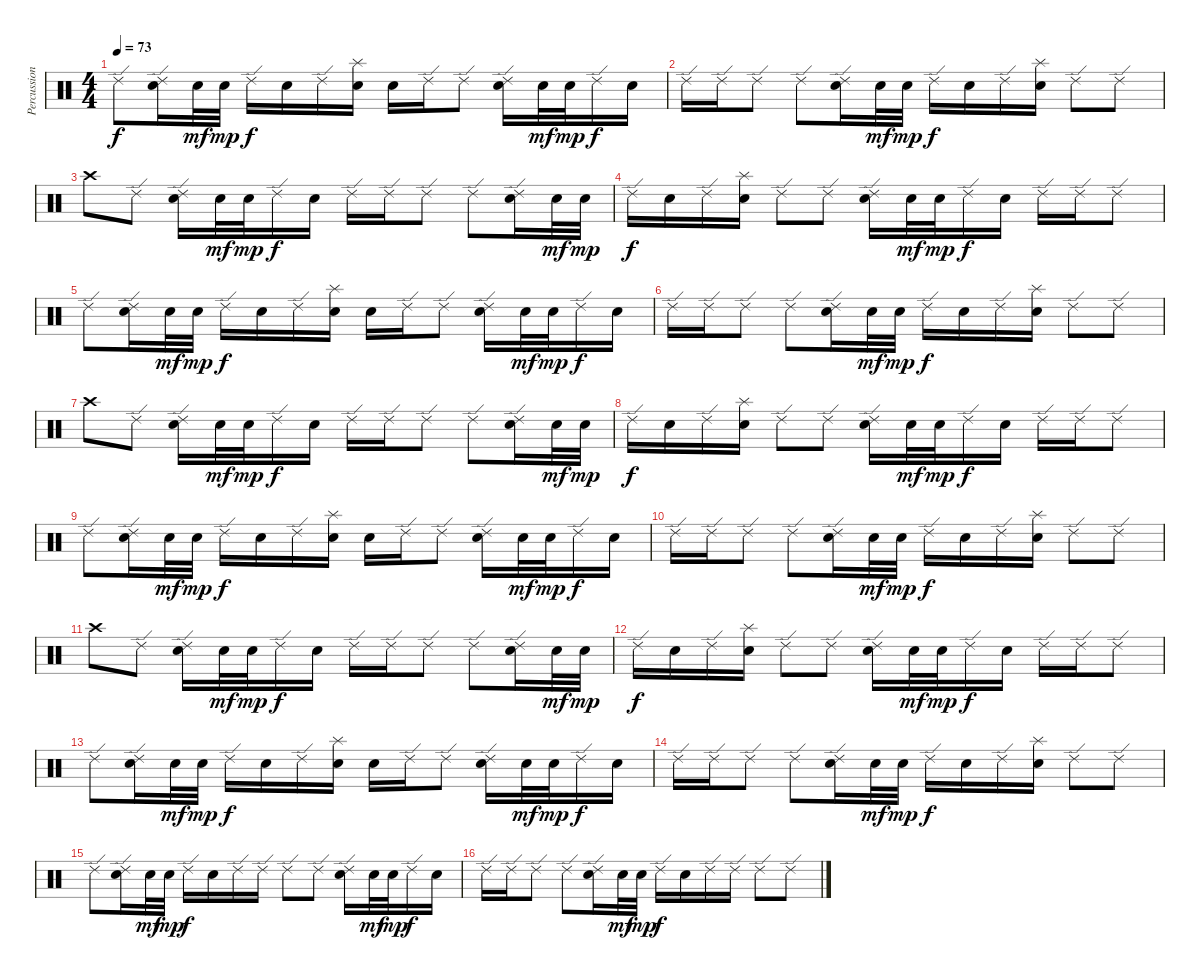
\track ("Percussion" "Percussion") {instrument percussion}
\staff {score}
\articulation defaults
\ts (4 4)
\tempo 73
\clef neutral
\ks c "Ride (edge) 2".8{dy f}
("Ride (edge) 2" "Electric Snare (hit)").16 "Electric Snare (hit)".32{dy mf} "Electric Snare (hit)".32{dy mp} "Ride (edge) 2".16{dy f} "Electric Snare (hit)".16 "Ride (edge) 2".16 ("Splash (hit)" "Electric Snare (hit)").16 "Electric Snare (hit)".16 "Ride (edge) 2".16 "Ride (edge) 2".8 ("Ride (edge) 2" "Electric Snare (hit)").16 "Electric Snare (hit)".32{dy mf} "Electric Snare (hit)".32{dy mp} "Ride (edge) 2".16{dy f} "Electric Snare (hit)".16 |
"Ride (edge) 2".16 "Ride (edge) 2".16 "Ride (edge) 2".8 "Ride (edge) 2".8 ("Ride (edge) 2" "Electric Snare (hit)").16 "Electric Snare (hit)".32{dy mf} "Electric Snare (hit)".32{dy mp} "Ride (edge) 2".16{dy f} "Electric Snare (hit)".16 "Ride (edge) 2".16 ("Splash (hit)" "Electric Snare (hit)").16 "Ride (edge) 2".8 "Ride (edge) 2".8 |
"Crash high (hit)".8{volume 12} "Ride (edge) 2".8 ("Ride (edge) 2" "Electric Snare (hit)").16 "Electric Snare (hit)".32{dy mf} "Electric Snare (hit)".32{dy mp} "Ride (edge) 2".16{dy f} "Electric Snare (hit)".16 "Ride (edge) 2".16 "Ride (edge) 2".16 "Ride (edge) 2".8 "Ride (edge) 2".8 ("Ride (edge) 2" "Electric Snare (hit)").16 "Electric Snare (hit)".32{dy mf} "Electric Snare (hit)".32{dy mp} |
"Ride (edge) 2".16{dy f} "Electric Snare (hit)".16 "Ride (edge) 2".16 ("Splash (hit)" "Electric Snare (hit)").16 "Ride (edge) 2".8 "Ride (edge) 2".8 ("Ride (edge) 2" "Electric Snare (hit)").16 "Electric Snare (hit)".32{dy mf} "Electric Snare (hit)".32{dy mp} "Ride (edge) 2".16{dy f} "Electric Snare (hit)".16 "Ride (edge) 2".16 "Ride (edge) 2".16 "Ride (edge) 2".8 |
"Ride (edge) 2".8 ("Ride (edge) 2" "Electric Snare (hit)").16 "Electric Snare (hit)".32{dy mf} "Electric Snare (hit)".32{dy mp} "Ride (edge) 2".16{dy f} "Electric Snare (hit)".16 "Ride (edge) 2".16 ("Splash (hit)" "Electric Snare (hit)").16 "Electric Snare (hit)".16 "Ride (edge) 2".16 "Ride (edge) 2".8 ("Ride (edge) 2" "Electric Snare (hit)").16 "Electric Snare (hit)".32{dy mf} "Electric Snare (hit)".32{dy mp} "Ride (edge) 2".16{dy f} "Electric Snare (hit)".16 |
"Ride (edge) 2".16 "Ride (edge) 2".16 "Ride (edge) 2".8 "Ride (edge) 2".8 ("Ride (edge) 2" "Electric Snare (hit)").16 "Electric Snare (hit)".32{dy mf} "Electric Snare (hit)".32{dy mp} "Ride (edge) 2".16{dy f} "Electric Snare (hit)".16 "Ride (edge) 2".16 ("Splash (hit)" "Electric Snare (hit)").16 "Ride (edge) 2".8 "Ride (edge) 2".8 |
"Crash high (hit)".8{volume 12} "Ride (edge) 2".8 ("Ride (edge) 2" "Electric Snare (hit)").16 "Electric Snare (hit)".32{dy mf} "Electric Snare (hit)".32{dy mp} "Ride (edge) 2".16{dy f} "Electric Snare (hit)".16 "Ride (edge) 2".16 "Ride (edge) 2".16 "Ride (edge) 2".8 "Ride (edge) 2".8 ("Ride (edge) 2" "Electric Snare (hit)").16 "Electric Snare (hit)".32{dy mf} "Electric Snare (hit)".32{dy mp} |
"Ride (edge) 2".16{dy f} "Electric Snare (hit)".16 "Ride (edge) 2".16 ("Splash (hit)" "Electric Snare (hit)").16 "Ride (edge) 2".8 "Ride (edge) 2".8 ("Ride (edge) 2" "Electric Snare (hit)").16 "Electric Snare (hit)".32{dy mf} "Electric Snare (hit)".32{dy mp} "Ride (edge) 2".16{dy f} "Electric Snare (hit)".16 "Ride (edge) 2".16 "Ride (edge) 2".16 "Ride (edge) 2".8 |
"Ride (edge) 2".8 ("Ride (edge) 2" "Electric Snare (hit)").16 "Electric Snare (hit)".32{dy mf} "Electric Snare (hit)".32{dy mp} "Ride (edge) 2".16{dy f} "Electric Snare (hit)".16 "Ride (edge) 2".16 ("Splash (hit)" "Electric Snare (hit)").16 "Electric Snare (hit)".16 "Ride (edge) 2".16 "Ride (edge) 2".8 ("Ride (edge) 2" "Electric Snare (hit)").16 "Electric Snare (hit)".32{dy mf} "Electric Snare (hit)".32{dy mp} "Ride (edge) 2".16{dy f} "Electric Snare (hit)".16 |
"Ride (edge) 2".16 "Ride (edge) 2".16 "Ride (edge) 2".8 "Ride (edge) 2".8 ("Ride (edge) 2" "Electric Snare (hit)").16 "Electric Snare (hit)".32{dy mf} "Electric Snare (hit)".32{dy mp} "Ride (edge) 2".16{dy f} "Electric Snare (hit)".16 "Ride (edge) 2".16 ("Splash (hit)" "Electric Snare (hit)").16 "Ride (edge) 2".8 "Ride (edge) 2".8 |
"Crash high (hit)".8{volume 12} "Ride (edge) 2".8 ("Ride (edge) 2" "Electric Snare (hit)").16 "Electric Snare (hit)".32{dy mf} "Electric Snare (hit)".32{dy mp} "Ride (edge) 2".16{dy f} "Electric Snare (hit)".16 "Ride (edge) 2".16 "Ride (edge) 2".16 "Ride (edge) 2".8 "Ride (edge) 2".8 ("Ride (edge) 2" "Electric Snare (hit)").16 "Electric Snare (hit)".32{dy mf} "Electric Snare (hit)".32{dy mp} |
"Ride (edge) 2".16{dy f} "Electric Snare (hit)".16 "Ride (edge) 2".16 ("Splash (hit)" "Electric Snare (hit)").16 "Ride (edge) 2".8 "Ride (edge) 2".8 ("Ride (edge) 2" "Electric Snare (hit)").16 "Electric Snare (hit)".32{dy mf} "Electric Snare (hit)".32{dy mp} "Ride (edge) 2".16{dy f} "Electric Snare (hit)".16 "Ride (edge) 2".16 "Ride (edge) 2".16 "Ride (edge) 2".8 |
"Ride (edge) 2".8 ("Ride (edge) 2" "Electric Snare (hit)").16 "Electric Snare (hit)".32{dy mf} "Electric Snare (hit)".32{dy mp} "Ride (edge) 2".16{dy f} "Electric Snare (hit)".16 "Ride (edge) 2".16 ("Splash (hit)" "Electric Snare (hit)").16 "Electric Snare (hit)".16 "Ride (edge) 2".16 "Ride (edge) 2".8 ("Ride (edge) 2" "Electric Snare (hit)").16 "Electric Snare (hit)".32{dy mf} "Electric Snare (hit)".32{dy mp} "Ride (edge) 2".16{dy f} "Electric Snare (hit)".16 |
"Ride (edge) 2".16 "Ride (edge) 2".16 "Ride (edge) 2".8 "Ride (edge) 2".8 ("Ride (edge) 2" "Electric Snare (hit)").16 "Electric Snare (hit)".32{dy mf} "Electric Snare (hit)".32{dy mp} "Ride (edge) 2".16{dy f} "Electric Snare (hit)".16 "Ride (edge) 2".16 ("Splash (hit)" "Electric Snare (hit)").16 "Ride (edge) 2".8 "Ride (edge) 2".8 |
"Ride (edge) 2".8 ("Ride (edge) 2" "Electric Snare (hit)").16 "Electric Snare (hit)".32{dy mf} "Electric Snare (hit)".32{dy mp} "Ride (edge) 2".16{dy f} "Electric Snare (hit)".16 "Ride (edge) 2".16 "Ride (edge) 2".16 "Ride (edge) 2".8 "Ride (edge) 2".8 ("Ride (edge) 2" "Electric Snare (hit)").16 "Electric Snare (hit)".32{dy mf} "Electric Snare (hit)".32{dy mp} "Ride (edge) 2".16{dy f} "Electric Snare (hit)".16 |
"Ride (edge) 2".16 "Ride (edge) 2".16 "Ride (edge) 2".8 "Ride (edge) 2".8 ("Ride (edge) 2" "Electric Snare (hit)").16 "Electric Snare (hit)".32{dy mf} "Electric Snare (hit)".32{dy mp} "Ride (edge) 2".16{dy f} "Electric Snare (hit)".16 "Ride (edge) 2".16 "Ride (edge) 2".16 "Ride (edge) 2".8 "Ride (edge) 2".8
